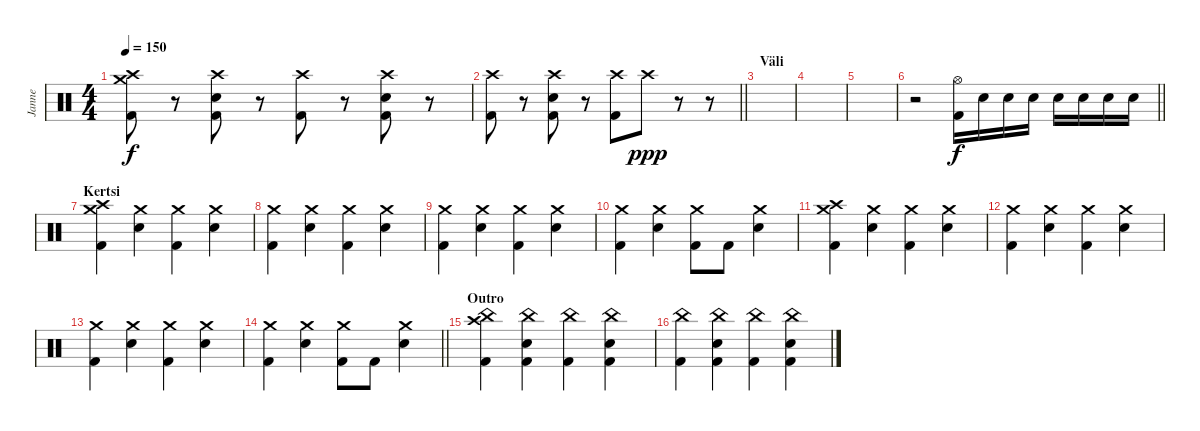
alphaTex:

\track ("Janne" "Janne") {instrument percussion}
\staff {score}
\articulation defaults
\ts (4 4)
\tempo 150
\clef neutral
\ks c
("Crash high (hit)" "Crash medium (hit)" "Kick (hit) 2").8{dy f} r.8 ("Crash high (hit)" "Electric Snare (hit)" "Kick (hit) 2").8 r.8 ("Crash high (hit)" "Kick (hit) 2").8 r.8 ("Crash high (hit)" "Electric Snare (hit)" "Kick (hit) 2").8 r.8 |
\barLineRight lightlight
("Crash high (hit)" "Kick (hit) 2").8 r.8 ("Crash high (hit)" "Electric Snare (hit)" "Kick (hit) 2").8 r.8 ("Crash high (hit)" "Kick (hit) 2").8 "Crash high (hit)".8{dy ppp} r.8 r.8 |
\section ("" "Väli")
|
|
|
\barLineRight lightlight
r.2 ("Hi-Hat (open)" "Kick (hit) 2").16{dy f} "Electric Snare (hit)".16 "Electric Snare (hit)".16 "Electric Snare (hit)".16 "Electric Snare (hit)".16 "Electric Snare (hit)".16 "Electric Snare (hit)".16 "Electric Snare (hit)".16 |
\section ("" "Kertsi")
("Crash high (hit)" "Crash medium (hit)" "Kick (hit) 2").4 ("Crash medium (hit)" "Electric Snare (hit)").4 ("Crash medium (hit)" "Kick (hit) 2").4 ("Crash medium (hit)" "Electric Snare (hit)").4 |
("Crash medium (hit)" "Kick (hit) 2").4 ("Crash medium (hit)" "Electric Snare (hit)").4 ("Crash medium (hit)" "Kick (hit) 2").4 ("Crash medium (hit)" "Electric Snare (hit)").4 |
("Crash medium (hit)" "Kick (hit) 2").4 ("Crash medium (hit)" "Electric Snare (hit)").4 ("Crash medium (hit)" "Kick (hit) 2").4 ("Crash medium (hit)" "Electric Snare (hit)").4 |
("Crash medium (hit)" "Kick (hit) 2").4 ("Crash medium (hit)" "Electric Snare (hit)").4 ("Crash medium (hit)" "Kick (hit) 2").8 "Kick (hit) 2".8 ("Crash medium (hit)" "Electric Snare (hit)").4 |
("Crash high (hit)" "Crash medium (hit)" "Kick (hit) 2").4 ("Crash medium (hit)" "Electric Snare (hit)").4 ("Crash medium (hit)" "Kick (hit) 2").4 ("Crash medium (hit)" "Electric Snare (hit)").4 |
("Crash medium (hit)" "Kick (hit) 2").4 ("Crash medium (hit)" "Electric Snare (hit)").4 ("Crash medium (hit)" "Kick (hit) 2").4 ("Crash medium (hit)" "Electric Snare (hit)").4 |
("Crash medium (hit)" "Kick (hit) 2").4 ("Crash medium (hit)" "Electric Snare (hit)").4 ("Crash medium (hit)" "Kick (hit) 2").4 ("Crash medium (hit)" "Electric Snare (hit)").4 |
\barLineRight lightlight
("Crash medium (hit)" "Kick (hit) 2").4 ("Crash medium (hit)" "Electric Snare (hit)").4 ("Crash medium (hit)" "Kick (hit) 2").8 "Kick (hit) 2".8 ("Crash medium (hit)" "Electric Snare (hit)").4 |
\section ("" "Outro")
("Crash high (hit)" "China (hit)" "Kick (hit) 2").4 ("China (hit)" "Electric Snare (hit)" "Kick (hit) 2").4 ("China (hit)" "Kick (hit) 2").4 ("China (hit)" "Electric Snare (hit)" "Kick (hit) 2").4 |
("China (hit)" "Kick (hit) 2").4 ("China (hit)" "Electric Snare (hit)" "Kick (hit) 2").4 ("China (hit)" "Kick (hit) 2").4 ("China (hit)" "Electric Snare (hit)" "Kick (hit) 2").4
